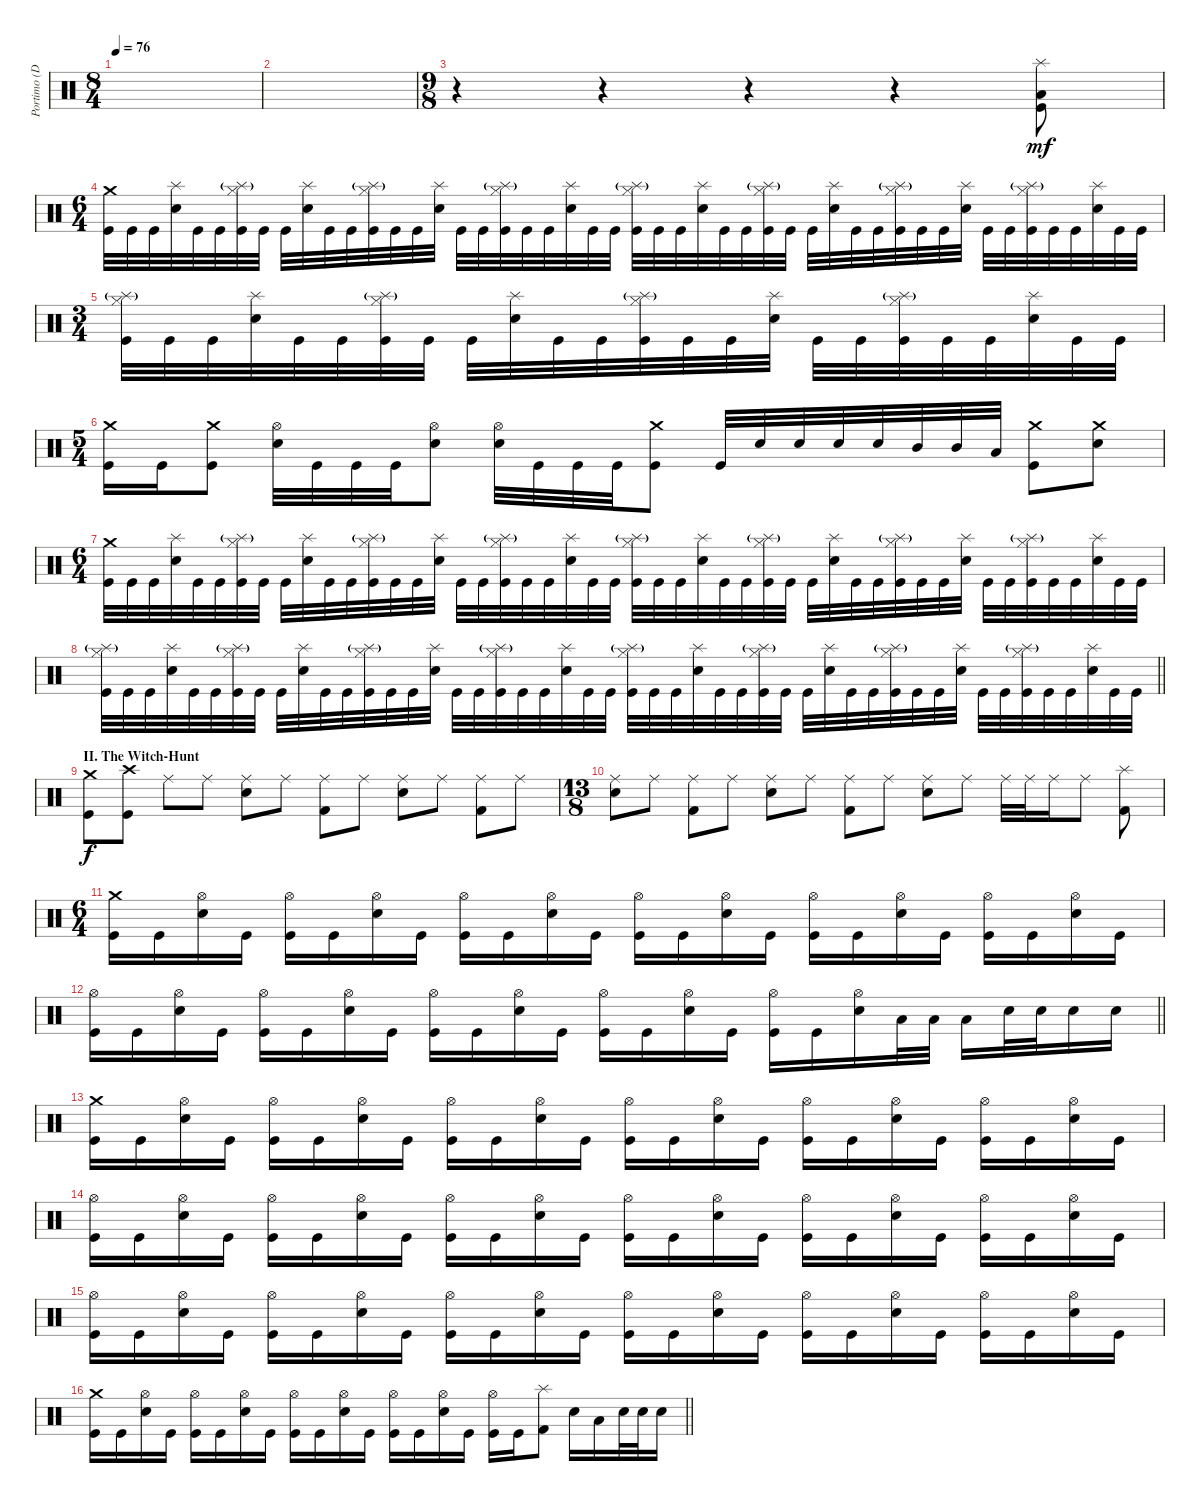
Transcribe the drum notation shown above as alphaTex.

\track ("Portimo (Drums)" "Portimo (D") {mute instrument percussion}
\staff {score}
\articulation defaults
\ts (8 4)
\tempo 76
\clef neutral
\ks c
|
|
\ts (9 8)
r.4 r.4 r.4 r.4 ("Splash (hit)" "Low Floor Tom (hit)" "Kick (hit)").8{dy mf} |
\ts (6 4)
("Crash medium (hit)" "Kick (hit)").32 "Kick (hit)".32 "Kick (hit)".32 ("Splash (hit)" "Snare (hit) 2").32 "Kick (hit)".32 "Kick (hit)".32 ("Hi-Hat (closed)" "Splash (hit)"{g} "Kick (hit)").32 "Kick (hit)".32 "Kick (hit)".32 ("Splash (hit)" "Snare (hit) 2").32 "Kick (hit)".32 "Kick (hit)".32 ("Hi-Hat (closed)" "Splash (hit)"{g} "Kick (hit)").32 "Kick (hit)".32 "Kick (hit)".32 ("Splash (hit)" "Snare (hit) 2").32 "Kick (hit)".32 "Kick (hit)".32 ("Hi-Hat (closed)" "Splash (hit)"{g} "Kick (hit)").32 "Kick (hit)".32 "Kick (hit)".32 ("Splash (hit)" "Snare (hit) 2").32 "Kick (hit)".32 "Kick (hit)".32 ("Hi-Hat (closed)" "Splash (hit)"{g} "Kick (hit)").32 "Kick (hit)".32 "Kick (hit)".32 ("Splash (hit)" "Snare (hit) 2").32 "Kick (hit)".32 "Kick (hit)".32 ("Hi-Hat (closed)" "Splash (hit)"{g} "Kick (hit)").32 "Kick (hit)".32 "Kick (hit)".32 ("Splash (hit)" "Snare (hit) 2").32 "Kick (hit)".32 "Kick (hit)".32 ("Hi-Hat (closed)" "Splash (hit)"{g} "Kick (hit)").32 "Kick (hit)".32 "Kick (hit)".32 ("Splash (hit)" "Snare (hit) 2").32 "Kick (hit)".32 "Kick (hit)".32 ("Hi-Hat (closed)" "Splash (hit)"{g} "Kick (hit)").32 "Kick (hit)".32 "Kick (hit)".32 ("Splash (hit)" "Snare (hit) 2").32 "Kick (hit)".32 "Kick (hit)".32 |
\ts (3 4)
("Hi-Hat (closed)" "Splash (hit)"{g} "Kick (hit)").32 "Kick (hit)".32 "Kick (hit)".32 ("Splash (hit)" "Snare (hit) 2").32 "Kick (hit)".32 "Kick (hit)".32 ("Hi-Hat (closed)" "Splash (hit)"{g} "Kick (hit)").32 "Kick (hit)".32 "Kick (hit)".32 ("Splash (hit)" "Snare (hit) 2").32 "Kick (hit)".32 "Kick (hit)".32 ("Hi-Hat (closed)" "Splash (hit)"{g} "Kick (hit)").32 "Kick (hit)".32 "Kick (hit)".32 ("Splash (hit)" "Snare (hit) 2").32 "Kick (hit)".32 "Kick (hit)".32 ("Hi-Hat (closed)" "Splash (hit)"{g} "Kick (hit)").32 "Kick (hit)".32 "Kick (hit)".32 ("Splash (hit)" "Snare (hit) 2").32 "Kick (hit)".32 "Kick (hit)".32 |
\ts (5 4)
("Crash medium (hit)" "Kick (hit)").16 "Kick (hit)".16 ("Crash medium (hit)" "Kick (hit)").8 ("Hi-Hat (open)" "Snare (hit) 2").32 "Kick (hit)".32 "Kick (hit)".32 "Kick (hit)".32 ("Hi-Hat (open)" "Snare (hit) 2").8 ("Hi-Hat (open)" "Snare (hit) 2").32 "Kick (hit)".32 "Kick (hit)".32 "Kick (hit)".32 ("Crash medium (hit)" "Kick (hit)").8 "Kick (hit)".32 "Snare (hit) 2".32 "Snare (hit) 2".32 "Snare (hit) 2".32 "Snare (hit) 2".32 "Mid Tom (hit)".32 "Mid Tom (hit)".32 "Low Tom (hit)".32 ("Crash medium (hit)" "Kick (hit)").8 ("Crash medium (hit)" "Snare (hit) 2").8 |
\ts (6 4)
("Crash medium (hit)" "Kick (hit)").32 "Kick (hit)".32 "Kick (hit)".32 ("Splash (hit)" "Snare (hit) 2").32 "Kick (hit)".32 "Kick (hit)".32 ("Hi-Hat (closed)" "Splash (hit)"{g} "Kick (hit)").32 "Kick (hit)".32 "Kick (hit)".32 ("Splash (hit)" "Snare (hit) 2").32 "Kick (hit)".32 "Kick (hit)".32 ("Hi-Hat (closed)" "Splash (hit)"{g} "Kick (hit)").32 "Kick (hit)".32 "Kick (hit)".32 ("Splash (hit)" "Snare (hit) 2").32 "Kick (hit)".32 "Kick (hit)".32 ("Hi-Hat (closed)" "Splash (hit)"{g} "Kick (hit)").32 "Kick (hit)".32 "Kick (hit)".32 ("Splash (hit)" "Snare (hit) 2").32 "Kick (hit)".32 "Kick (hit)".32 ("Hi-Hat (closed)" "Splash (hit)"{g} "Kick (hit)").32 "Kick (hit)".32 "Kick (hit)".32 ("Splash (hit)" "Snare (hit) 2").32 "Kick (hit)".32 "Kick (hit)".32 ("Hi-Hat (closed)" "Splash (hit)"{g} "Kick (hit)").32 "Kick (hit)".32 "Kick (hit)".32 ("Splash (hit)" "Snare (hit) 2").32 "Kick (hit)".32 "Kick (hit)".32 ("Hi-Hat (closed)" "Splash (hit)"{g} "Kick (hit)").32 "Kick (hit)".32 "Kick (hit)".32 ("Splash (hit)" "Snare (hit) 2").32 "Kick (hit)".32 "Kick (hit)".32 ("Hi-Hat (closed)" "Splash (hit)"{g} "Kick (hit)").32 "Kick (hit)".32 "Kick (hit)".32 ("Splash (hit)" "Snare (hit) 2").32 "Kick (hit)".32 "Kick (hit)".32 |
\barLineRight lightlight
("Splash (hit)"{g} "Hi-Hat (closed)" "Kick (hit)").32 "Kick (hit)".32 "Kick (hit)".32 ("Splash (hit)" "Snare (hit) 2").32 "Kick (hit)".32 "Kick (hit)".32 ("Hi-Hat (closed)" "Splash (hit)"{g} "Kick (hit)").32 "Kick (hit)".32 "Kick (hit)".32 ("Splash (hit)" "Snare (hit) 2").32 "Kick (hit)".32 "Kick (hit)".32 ("Hi-Hat (closed)" "Splash (hit)"{g} "Kick (hit)").32 "Kick (hit)".32 "Kick (hit)".32 ("Splash (hit)" "Snare (hit) 2").32 "Kick (hit)".32 "Kick (hit)".32 ("Hi-Hat (closed)" "Splash (hit)"{g} "Kick (hit)").32 "Kick (hit)".32 "Kick (hit)".32 ("Splash (hit)" "Snare (hit) 2").32 "Kick (hit)".32 "Kick (hit)".32 ("Hi-Hat (closed)" "Splash (hit)"{g} "Kick (hit)").32 "Kick (hit)".32 "Kick (hit)".32 ("Splash (hit)" "Snare (hit) 2").32 "Kick (hit)".32 "Kick (hit)".32 ("Hi-Hat (closed)" "Splash (hit)"{g} "Kick (hit)").32 "Kick (hit)".32 "Kick (hit)".32 ("Splash (hit)" "Snare (hit) 2").32 "Kick (hit)".32 "Kick (hit)".32 ("Hi-Hat (closed)" "Splash (hit)"{g} "Kick (hit)").32 "Kick (hit)".32 "Kick (hit)".32 ("Splash (hit)" "Snare (hit) 2").32 "Kick (hit)".32 "Kick (hit)".32 ("Hi-Hat (closed)" "Splash (hit)"{g} "Kick (hit)").32 "Kick (hit)".32 "Kick (hit)".32 ("Splash (hit)" "Snare (hit) 2").32 "Kick (hit)".32 "Kick (hit)".32 |
\section ("" "II. The Witch-Hunt")
("Crash medium (hit)" "Kick (hit)").8{dy f} ("Crash high (hit)" "Kick (hit)").8 "Ride (middle)".8 "Ride (middle)".8 ("Ride (middle)" "Snare (hit) 2").8 "Ride (middle)".8 ("Ride (middle)" "Kick (hit) 2").8 "Ride (middle)".8 ("Ride (middle)" "Snare (hit) 2").8 "Ride (middle)".8 ("Ride (middle)" "Kick (hit) 2").8 "Ride (middle)".8 |
\ts (13 8)
("Ride (middle)" "Snare (hit) 2").8 "Ride (middle)".8 ("Ride (middle)" "Kick (hit) 2").8 "Ride (middle)".8 ("Ride (middle)" "Snare (hit) 2").8 "Ride (middle)".8 ("Ride (middle)" "Kick (hit) 2").8 "Ride (middle)".8 ("Ride (middle)" "Snare (hit) 2").8 "Ride (middle)".8 "Ride (middle)".32 "Ride (middle)".32 "Ride (middle)".16 "Ride (middle)".8 ("Splash (hit)" "Kick (hit) 2").8 |
\ts (6 4)
("Crash medium (hit)" "Kick (hit)").16 "Kick (hit)".16 ("Hi-Hat (open)" "Snare (hit) 2").16 "Kick (hit)".16 ("Hi-Hat (open)" "Kick (hit)").16 "Kick (hit)".16 ("Hi-Hat (open)" "Snare (hit) 2").16 "Kick (hit)".16 ("Hi-Hat (open)" "Kick (hit)").16 "Kick (hit)".16 ("Hi-Hat (open)" "Snare (hit) 2").16 "Kick (hit)".16 ("Hi-Hat (open)" "Kick (hit)").16 "Kick (hit)".16 ("Hi-Hat (open)" "Snare (hit) 2").16 "Kick (hit)".16 ("Hi-Hat (open)" "Kick (hit)").16 "Kick (hit)".16 ("Hi-Hat (open)" "Snare (hit) 2").16 "Kick (hit)".16 ("Hi-Hat (open)" "Kick (hit)").16 "Kick (hit)".16 ("Hi-Hat (open)" "Snare (hit) 2").16 "Kick (hit)".16 |
\barLineRight lightlight
("Hi-Hat (open)" "Kick (hit)").16 "Kick (hit)".16 ("Hi-Hat (open)" "Snare (hit) 2").16 "Kick (hit)".16 ("Hi-Hat (open)" "Kick (hit)").16 "Kick (hit)".16 ("Hi-Hat (open)" "Snare (hit) 2").16 "Kick (hit)".16 ("Hi-Hat (open)" "Kick (hit)").16 "Kick (hit)".16 ("Hi-Hat (open)" "Snare (hit) 2").16 "Kick (hit)".16 ("Hi-Hat (open)" "Kick (hit)").16 "Kick (hit)".16 ("Hi-Hat (open)" "Snare (hit) 2").16 "Kick (hit)".16 ("Hi-Hat (open)" "Kick (hit)").16 "Kick (hit)".16 ("Hi-Hat (open)" "Snare (hit) 2").16 "Low Tom (hit)".32 "Low Tom (hit)".32 "Low Tom (hit)".16 "Snare (hit) 2".32 "Snare (hit) 2".32 "Snare (hit) 2".16 "Snare (hit) 2".16 |
("Crash medium (hit)" "Kick (hit)").16 "Kick (hit)".16 ("Hi-Hat (open)" "Snare (hit) 2").16 "Kick (hit)".16 ("Hi-Hat (open)" "Kick (hit)").16 "Kick (hit)".16 ("Hi-Hat (open)" "Snare (hit) 2").16 "Kick (hit)".16 ("Hi-Hat (open)" "Kick (hit)").16 "Kick (hit)".16 ("Hi-Hat (open)" "Snare (hit) 2").16 "Kick (hit)".16 ("Hi-Hat (open)" "Kick (hit)").16 "Kick (hit)".16 ("Hi-Hat (open)" "Snare (hit) 2").16 "Kick (hit)".16 ("Hi-Hat (open)" "Kick (hit)").16 "Kick (hit)".16 ("Hi-Hat (open)" "Snare (hit) 2").16 "Kick (hit)".16 ("Hi-Hat (open)" "Kick (hit)").16 "Kick (hit)".16 ("Hi-Hat (open)" "Snare (hit) 2").16 "Kick (hit)".16 |
("Hi-Hat (open)" "Kick (hit)").16 "Kick (hit)".16 ("Hi-Hat (open)" "Snare (hit) 2").16 "Kick (hit)".16 ("Hi-Hat (open)" "Kick (hit)").16 "Kick (hit)".16 ("Hi-Hat (open)" "Snare (hit) 2").16 "Kick (hit)".16 ("Hi-Hat (open)" "Kick (hit)").16 "Kick (hit)".16 ("Hi-Hat (open)" "Snare (hit) 2").16 "Kick (hit)".16 ("Hi-Hat (open)" "Kick (hit)").16 "Kick (hit)".16 ("Hi-Hat (open)" "Snare (hit) 2").16 "Kick (hit)".16 ("Hi-Hat (open)" "Kick (hit)").16 "Kick (hit)".16 ("Hi-Hat (open)" "Snare (hit) 2").16 "Kick (hit)".16 ("Hi-Hat (open)" "Kick (hit)").16 "Kick (hit)".16 ("Hi-Hat (open)" "Snare (hit) 2").16 "Kick (hit)".16 |
("Hi-Hat (open)" "Kick (hit)").16 "Kick (hit)".16 ("Hi-Hat (open)" "Snare (hit) 2").16 "Kick (hit)".16 ("Hi-Hat (open)" "Kick (hit)").16 "Kick (hit)".16 ("Hi-Hat (open)" "Snare (hit) 2").16 "Kick (hit)".16 ("Hi-Hat (open)" "Kick (hit)").16 "Kick (hit)".16 ("Hi-Hat (open)" "Snare (hit) 2").16 "Kick (hit)".16 ("Hi-Hat (open)" "Kick (hit)").16 "Kick (hit)".16 ("Hi-Hat (open)" "Snare (hit) 2").16 "Kick (hit)".16 ("Hi-Hat (open)" "Kick (hit)").16 "Kick (hit)".16 ("Hi-Hat (open)" "Snare (hit) 2").16 "Kick (hit)".16 ("Hi-Hat (open)" "Kick (hit)").16 "Kick (hit)".16 ("Hi-Hat (open)" "Snare (hit) 2").16 "Kick (hit)".16 |
\barLineRight lightlight
("Crash medium (hit)" "Kick (hit)").16 "Kick (hit)".16 ("Hi-Hat (open)" "Snare (hit) 2").16 "Kick (hit)".16 ("Hi-Hat (open)" "Kick (hit)").16 "Kick (hit)".16 ("Hi-Hat (open)" "Snare (hit) 2").16 "Kick (hit)".16 ("Hi-Hat (open)" "Kick (hit)").16 "Kick (hit)".16 ("Hi-Hat (open)" "Snare (hit) 2").16 "Kick (hit)".16 ("Hi-Hat (open)" "Kick (hit)").16 "Kick (hit)".16 ("Hi-Hat (open)" "Snare (hit) 2").16 "Kick (hit)".16 ("Hi-Hat (open)" "Kick (hit)").16 "Kick (hit)".16 ("Splash (hit)" "Kick (hit) 2").8 "Snare (hit) 2".16 "Low Tom (hit)".16 "Snare (hit) 2".32 "Snare (hit) 2".32 "Snare (hit) 2".16
